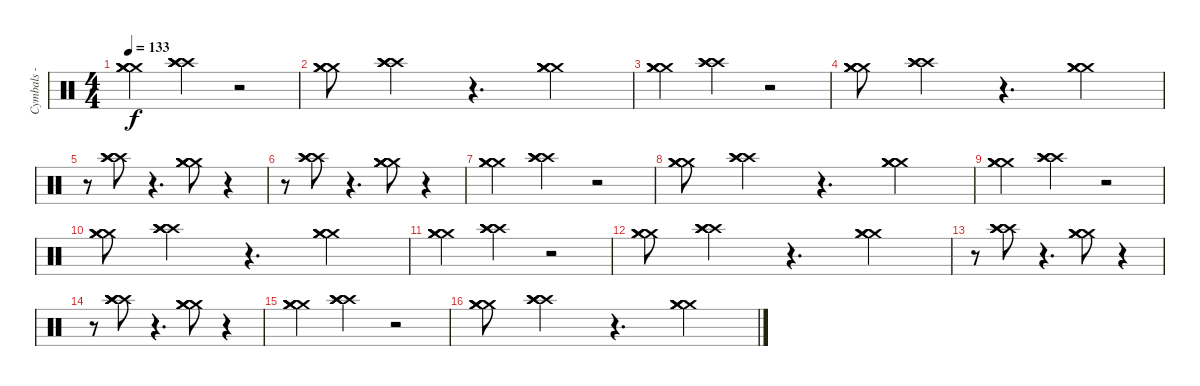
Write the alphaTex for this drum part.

\track ("Cymbals - Joe Daniels" "Cymbals - ") {instrument percussion}
\staff {score}
\articulation defaults
\ts (4 4)
\tempo 133
\clef neutral
\ks c
("Crash medium (hit)" "Crash medium (hit)" "Crash medium (hit)" "Crash medium (hit)").4{dy f} ("Crash high (hit)" "Crash high (hit)" "Crash high (hit)" "Crash high (hit)").4 r.2 |
("Crash medium (hit)" "Crash medium (hit)" "Crash medium (hit)" "Crash medium (hit)").8 ("Crash high (hit)" "Crash high (hit)" "Crash high (hit)" "Crash high (hit)").4 r.4{d} ("Crash medium (hit)" "Crash medium (hit)" "Crash medium (hit)" "Crash medium (hit)").4 |
("Crash medium (hit)" "Crash medium (hit)" "Crash medium (hit)" "Crash medium (hit)").4 ("Crash high (hit)" "Crash high (hit)" "Crash high (hit)" "Crash high (hit)").4 r.2 |
("Crash medium (hit)" "Crash medium (hit)" "Crash medium (hit)" "Crash medium (hit)").8 ("Crash high (hit)" "Crash high (hit)" "Crash high (hit)" "Crash high (hit)").4 r.4{d} ("Crash medium (hit)" "Crash medium (hit)" "Crash medium (hit)" "Crash medium (hit)").4 |
r.8 ("Crash high (hit)" "Crash high (hit)" "Crash high (hit)" "Crash high (hit)").8 r.4{d} ("Crash medium (hit)" "Crash medium (hit)" "Crash medium (hit)" "Crash medium (hit)").8 r.4 |
r.8 ("Crash high (hit)" "Crash high (hit)" "Crash high (hit)" "Crash high (hit)").8 r.4{d} ("Crash medium (hit)" "Crash medium (hit)" "Crash medium (hit)" "Crash medium (hit)").8 r.4 |
("Crash medium (hit)" "Crash medium (hit)" "Crash medium (hit)" "Crash medium (hit)").4 ("Crash high (hit)" "Crash high (hit)" "Crash high (hit)" "Crash high (hit)").4 r.2 |
("Crash medium (hit)" "Crash medium (hit)" "Crash medium (hit)" "Crash medium (hit)").8 ("Crash high (hit)" "Crash high (hit)" "Crash high (hit)" "Crash high (hit)").4 r.4{d} ("Crash medium (hit)" "Crash medium (hit)" "Crash medium (hit)" "Crash medium (hit)").4 |
("Crash medium (hit)" "Crash medium (hit)" "Crash medium (hit)" "Crash medium (hit)").4 ("Crash high (hit)" "Crash high (hit)" "Crash high (hit)" "Crash high (hit)").4 r.2 |
("Crash medium (hit)" "Crash medium (hit)" "Crash medium (hit)" "Crash medium (hit)").8 ("Crash high (hit)" "Crash high (hit)" "Crash high (hit)" "Crash high (hit)").4 r.4{d} ("Crash medium (hit)" "Crash medium (hit)" "Crash medium (hit)" "Crash medium (hit)").4 |
("Crash medium (hit)" "Crash medium (hit)" "Crash medium (hit)" "Crash medium (hit)").4 ("Crash high (hit)" "Crash high (hit)" "Crash high (hit)" "Crash high (hit)").4 r.2 |
("Crash medium (hit)" "Crash medium (hit)" "Crash medium (hit)" "Crash medium (hit)").8 ("Crash high (hit)" "Crash high (hit)" "Crash high (hit)" "Crash high (hit)").4 r.4{d} ("Crash medium (hit)" "Crash medium (hit)" "Crash medium (hit)" "Crash medium (hit)").4 |
r.8 ("Crash high (hit)" "Crash high (hit)" "Crash high (hit)" "Crash high (hit)").8 r.4{d} ("Crash medium (hit)" "Crash medium (hit)" "Crash medium (hit)" "Crash medium (hit)").8 r.4 |
r.8 ("Crash high (hit)" "Crash high (hit)" "Crash high (hit)" "Crash high (hit)").8 r.4{d} ("Crash medium (hit)" "Crash medium (hit)" "Crash medium (hit)" "Crash medium (hit)").8 r.4 |
("Crash medium (hit)" "Crash medium (hit)" "Crash medium (hit)" "Crash medium (hit)").4 ("Crash high (hit)" "Crash high (hit)" "Crash high (hit)" "Crash high (hit)").4 r.2 |
("Crash medium (hit)" "Crash medium (hit)" "Crash medium (hit)" "Crash medium (hit)").8 ("Crash high (hit)" "Crash high (hit)" "Crash high (hit)" "Crash high (hit)").4 r.4{d} ("Crash medium (hit)" "Crash medium (hit)" "Crash medium (hit)" "Crash medium (hit)").4
